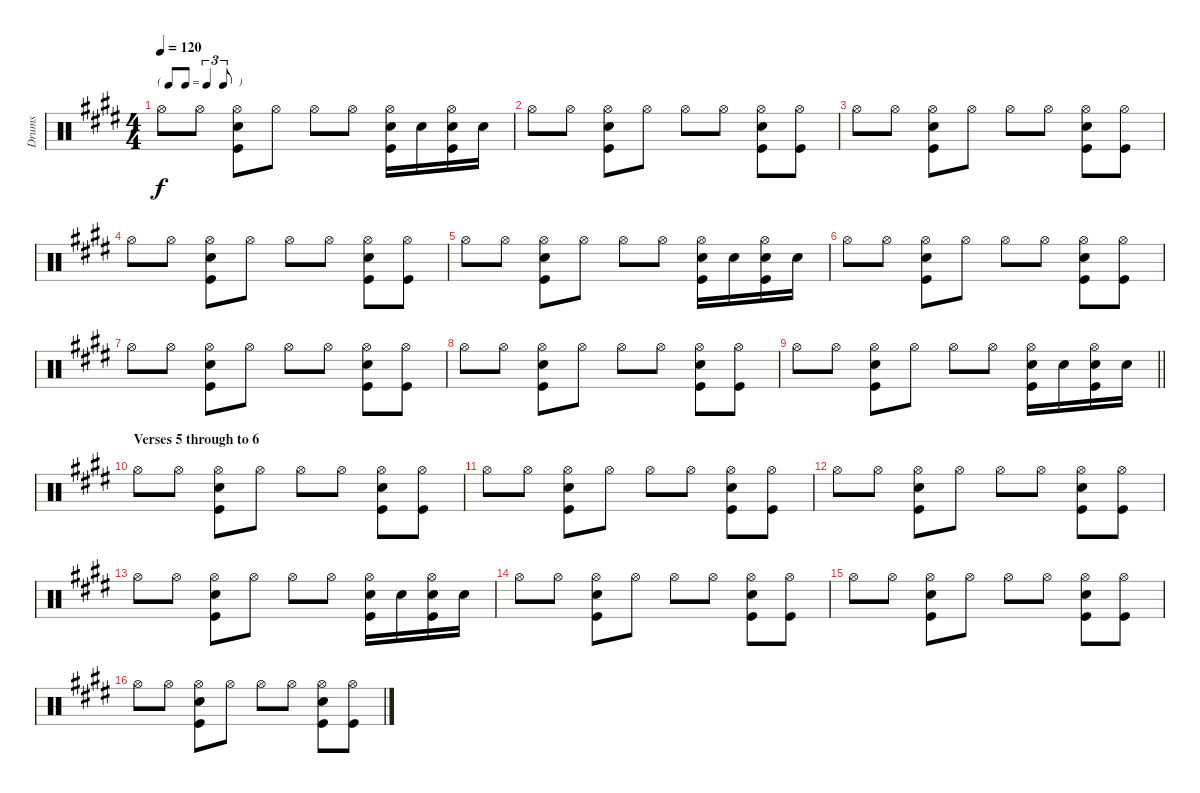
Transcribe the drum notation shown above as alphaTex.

\track ("Drums" "Drums") {instrument percussion}
\staff {score}
\articulation defaults
\ts (4 4)
\tf triplet8th
\tempo 120
\clef neutral
\ks e "Hi-Hat (open)".8{dy f} "Hi-Hat (open)".8
("Kick (hit)" "Electric Snare (hit)" "Hi-Hat (open)").8 "Hi-Hat (open)".8 "Hi-Hat (open)".8 "Hi-Hat (open)".8 ("Kick (hit)" "Electric Snare (hit)" "Hi-Hat (open)").16 "Electric Snare (hit)".16 ("Electric Snare (hit)" "Kick (hit)" "Hi-Hat (open)").16 "Electric Snare (hit)".16 |
"Hi-Hat (open)".8 "Hi-Hat (open)".8 ("Kick (hit)" "Electric Snare (hit)" "Hi-Hat (open)").8 "Hi-Hat (open)".8 "Hi-Hat (open)".8 "Hi-Hat (open)".8 ("Kick (hit)" "Electric Snare (hit)" "Hi-Hat (open)").8 ("Kick (hit)" "Hi-Hat (open)").8 |
"Hi-Hat (open)".8 "Hi-Hat (open)".8 ("Kick (hit)" "Electric Snare (hit)" "Hi-Hat (open)").8 "Hi-Hat (open)".8 "Hi-Hat (open)".8 "Hi-Hat (open)".8 ("Kick (hit)" "Electric Snare (hit)" "Hi-Hat (open)").8 ("Kick (hit)" "Hi-Hat (open)").8 |
"Hi-Hat (open)".8 "Hi-Hat (open)".8 ("Kick (hit)" "Electric Snare (hit)" "Hi-Hat (open)").8 "Hi-Hat (open)".8 "Hi-Hat (open)".8 "Hi-Hat (open)".8 ("Kick (hit)" "Electric Snare (hit)" "Hi-Hat (open)").8 ("Kick (hit)" "Hi-Hat (open)").8 |
"Hi-Hat (open)".8 "Hi-Hat (open)".8 ("Kick (hit)" "Electric Snare (hit)" "Hi-Hat (open)").8 "Hi-Hat (open)".8 "Hi-Hat (open)".8 "Hi-Hat (open)".8 ("Kick (hit)" "Electric Snare (hit)" "Hi-Hat (open)").16 "Electric Snare (hit)".16 ("Electric Snare (hit)" "Kick (hit)" "Hi-Hat (open)").16 "Electric Snare (hit)".16 |
"Hi-Hat (open)".8 "Hi-Hat (open)".8 ("Kick (hit)" "Electric Snare (hit)" "Hi-Hat (open)").8 "Hi-Hat (open)".8 "Hi-Hat (open)".8 "Hi-Hat (open)".8 ("Kick (hit)" "Electric Snare (hit)" "Hi-Hat (open)").8 ("Kick (hit)" "Hi-Hat (open)").8 |
"Hi-Hat (open)".8 "Hi-Hat (open)".8 ("Kick (hit)" "Electric Snare (hit)" "Hi-Hat (open)").8 "Hi-Hat (open)".8 "Hi-Hat (open)".8 "Hi-Hat (open)".8 ("Kick (hit)" "Electric Snare (hit)" "Hi-Hat (open)").8 ("Kick (hit)" "Hi-Hat (open)").8 |
"Hi-Hat (open)".8 "Hi-Hat (open)".8 ("Kick (hit)" "Electric Snare (hit)" "Hi-Hat (open)").8 "Hi-Hat (open)".8 "Hi-Hat (open)".8 "Hi-Hat (open)".8 ("Kick (hit)" "Electric Snare (hit)" "Hi-Hat (open)").8 ("Kick (hit)" "Hi-Hat (open)").8 |
\barLineRight lightlight "Hi-Hat (open)".8 "Hi-Hat (open)".8
("Kick (hit)" "Electric Snare (hit)" "Hi-Hat (open)").8 "Hi-Hat (open)".8 "Hi-Hat (open)".8 "Hi-Hat (open)".8 ("Kick (hit)" "Electric Snare (hit)" "Hi-Hat (open)").16 "Electric Snare (hit)".16 ("Electric Snare (hit)" "Kick (hit)" "Hi-Hat (open)").16 "Electric Snare (hit)".16 |
\section ("" "Verses 5 through to 6")
"Hi-Hat (open)".8 "Hi-Hat (open)".8 ("Kick (hit)" "Electric Snare (hit)" "Hi-Hat (open)").8 "Hi-Hat (open)".8 "Hi-Hat (open)".8 "Hi-Hat (open)".8 ("Kick (hit)" "Electric Snare (hit)" "Hi-Hat (open)").8 ("Kick (hit)" "Hi-Hat (open)").8 |
"Hi-Hat (open)".8 "Hi-Hat (open)".8 ("Kick (hit)" "Electric Snare (hit)" "Hi-Hat (open)").8 "Hi-Hat (open)".8 "Hi-Hat (open)".8 "Hi-Hat (open)".8 ("Kick (hit)" "Electric Snare (hit)" "Hi-Hat (open)").8 ("Kick (hit)" "Hi-Hat (open)").8 |
"Hi-Hat (open)".8 "Hi-Hat (open)".8 ("Kick (hit)" "Electric Snare (hit)" "Hi-Hat (open)").8 "Hi-Hat (open)".8 "Hi-Hat (open)".8 "Hi-Hat (open)".8 ("Kick (hit)" "Electric Snare (hit)" "Hi-Hat (open)").8 ("Kick (hit)" "Hi-Hat (open)").8 |
"Hi-Hat (open)".8 "Hi-Hat (open)".8 ("Kick (hit)" "Electric Snare (hit)" "Hi-Hat (open)").8 "Hi-Hat (open)".8 "Hi-Hat (open)".8 "Hi-Hat (open)".8 ("Kick (hit)" "Electric Snare (hit)" "Hi-Hat (open)").16 "Electric Snare (hit)".16 ("Electric Snare (hit)" "Kick (hit)" "Hi-Hat (open)").16 "Electric Snare (hit)".16 |
"Hi-Hat (open)".8 "Hi-Hat (open)".8 ("Kick (hit)" "Electric Snare (hit)" "Hi-Hat (open)").8 "Hi-Hat (open)".8 "Hi-Hat (open)".8 "Hi-Hat (open)".8 ("Kick (hit)" "Electric Snare (hit)" "Hi-Hat (open)").8 ("Kick (hit)" "Hi-Hat (open)").8 |
"Hi-Hat (open)".8 "Hi-Hat (open)".8 ("Kick (hit)" "Electric Snare (hit)" "Hi-Hat (open)").8 "Hi-Hat (open)".8 "Hi-Hat (open)".8 "Hi-Hat (open)".8 ("Kick (hit)" "Electric Snare (hit)" "Hi-Hat (open)").8 ("Kick (hit)" "Hi-Hat (open)").8 |
"Hi-Hat (open)".8 "Hi-Hat (open)".8 ("Kick (hit)" "Electric Snare (hit)" "Hi-Hat (open)").8 "Hi-Hat (open)".8 "Hi-Hat (open)".8 "Hi-Hat (open)".8 ("Kick (hit)" "Electric Snare (hit)" "Hi-Hat (open)").8 ("Kick (hit)" "Hi-Hat (open)").8
